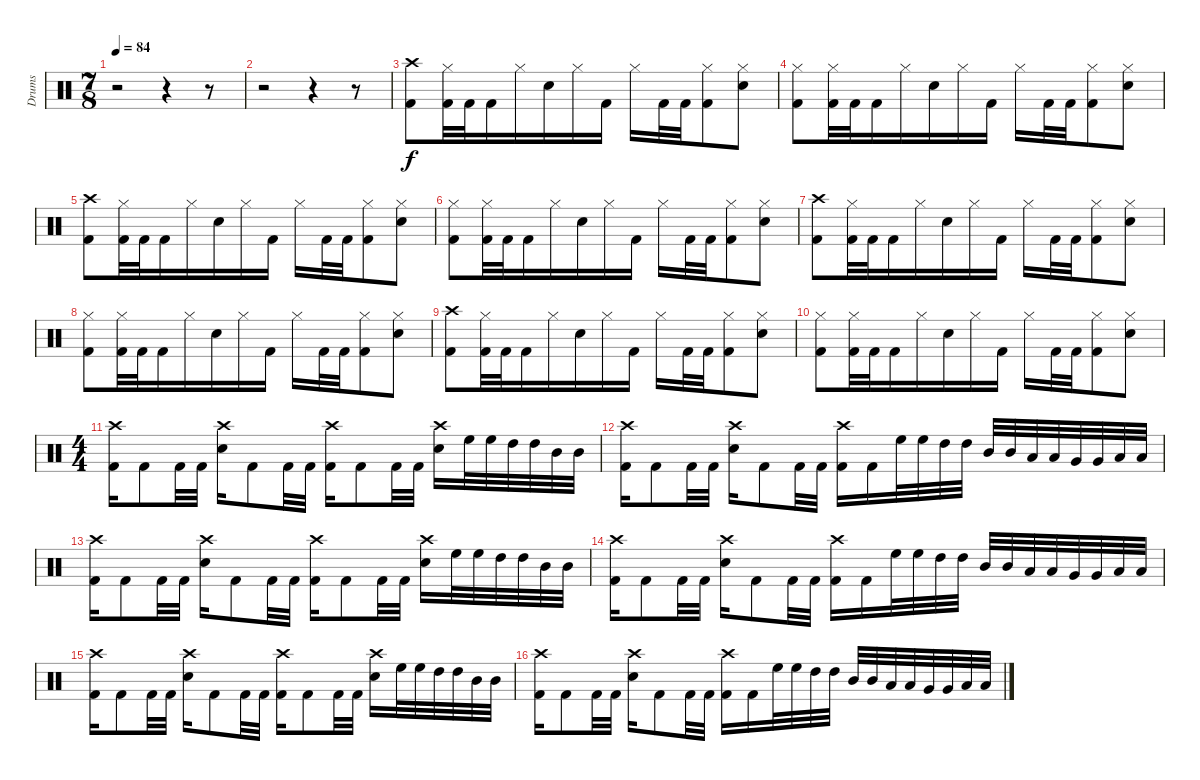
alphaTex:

\track ("Drums" "Drums") {instrument percussion}
\staff {score}
\articulation defaults
\ts (7 8)
\tempo 84
\clef neutral
\ks c
r.2{dy f} r.4 r.8 |
r.2 r.4 r.8 |
("Crash high (hit)" "Kick (hit) 2").8 ("Hi-Hat (closed)" "Kick (hit) 2").32 "Kick (hit) 2".32 "Kick (hit) 2".16 "Hi-Hat (closed)".16 "Electric Snare (hit)".16 "Hi-Hat (closed)".16 "Kick (hit) 2".16 "Hi-Hat (closed)".16 "Kick (hit) 2".32 "Kick (hit) 2".32 ("Hi-Hat (closed)" "Kick (hit) 2").8 ("Hi-Hat (closed)" "Electric Snare (hit)").8 |
("Hi-Hat (closed)" "Kick (hit) 2").8 ("Hi-Hat (closed)" "Kick (hit) 2").32 "Kick (hit) 2".32 "Kick (hit) 2".16 "Hi-Hat (closed)".16 "Electric Snare (hit)".16 "Hi-Hat (closed)".16 "Kick (hit) 2".16 "Hi-Hat (closed)".16 "Kick (hit) 2".32 "Kick (hit) 2".32 ("Hi-Hat (closed)" "Kick (hit) 2").8 ("Hi-Hat (closed)" "Electric Snare (hit)").8 |
("Crash high (hit)" "Kick (hit) 2").8 ("Hi-Hat (closed)" "Kick (hit) 2").32 "Kick (hit) 2".32 "Kick (hit) 2".16 "Hi-Hat (closed)".16 "Electric Snare (hit)".16 "Hi-Hat (closed)".16 "Kick (hit) 2".16 "Hi-Hat (closed)".16 "Kick (hit) 2".32 "Kick (hit) 2".32 ("Hi-Hat (closed)" "Kick (hit) 2").8 ("Hi-Hat (closed)" "Electric Snare (hit)").8 |
("Hi-Hat (closed)" "Kick (hit) 2").8 ("Hi-Hat (closed)" "Kick (hit) 2").32 "Kick (hit) 2".32 "Kick (hit) 2".16 "Hi-Hat (closed)".16 "Electric Snare (hit)".16 "Hi-Hat (closed)".16 "Kick (hit) 2".16 "Hi-Hat (closed)".16 "Kick (hit) 2".32 "Kick (hit) 2".32 ("Hi-Hat (closed)" "Kick (hit) 2").8 ("Hi-Hat (closed)" "Electric Snare (hit)").8 |
("Crash high (hit)" "Kick (hit) 2").8 ("Hi-Hat (closed)" "Kick (hit) 2").32 "Kick (hit) 2".32 "Kick (hit) 2".16 "Hi-Hat (closed)".16 "Electric Snare (hit)".16 "Hi-Hat (closed)".16 "Kick (hit) 2".16 "Hi-Hat (closed)".16 "Kick (hit) 2".32 "Kick (hit) 2".32 ("Hi-Hat (closed)" "Kick (hit) 2").8 ("Hi-Hat (closed)" "Electric Snare (hit)").8 |
("Hi-Hat (closed)" "Kick (hit) 2").8 ("Hi-Hat (closed)" "Kick (hit) 2").32 "Kick (hit) 2".32 "Kick (hit) 2".16 "Hi-Hat (closed)".16 "Electric Snare (hit)".16 "Hi-Hat (closed)".16 "Kick (hit) 2".16 "Hi-Hat (closed)".16 "Kick (hit) 2".32 "Kick (hit) 2".32 ("Hi-Hat (closed)" "Kick (hit) 2").8 ("Hi-Hat (closed)" "Electric Snare (hit)").8 |
("Crash high (hit)" "Kick (hit) 2").8 ("Hi-Hat (closed)" "Kick (hit) 2").32 "Kick (hit) 2".32 "Kick (hit) 2".16 "Hi-Hat (closed)".16 "Electric Snare (hit)".16 "Hi-Hat (closed)".16 "Kick (hit) 2".16 "Hi-Hat (closed)".16 "Kick (hit) 2".32 "Kick (hit) 2".32 ("Hi-Hat (closed)" "Kick (hit) 2").8 ("Hi-Hat (closed)" "Electric Snare (hit)").8 |
("Hi-Hat (closed)" "Kick (hit) 2").8 ("Hi-Hat (closed)" "Kick (hit) 2").32 "Kick (hit) 2".32 "Kick (hit) 2".16 "Hi-Hat (closed)".16 "Electric Snare (hit)".16 "Hi-Hat (closed)".16 "Kick (hit) 2".16 "Hi-Hat (closed)".16 "Kick (hit) 2".32 "Kick (hit) 2".32 ("Hi-Hat (closed)" "Kick (hit) 2").8 ("Hi-Hat (closed)" "Electric Snare (hit)").8 |
\ts (4 4)
("Crash high (hit)" "Kick (hit) 2").16 "Kick (hit) 2".8 "Kick (hit) 2".32 "Kick (hit) 2".32 ("Crash high (hit)" "Electric Snare (hit)").16 "Kick (hit) 2".8 "Kick (hit) 2".32 "Kick (hit) 2".32 ("Crash high (hit)" "Kick (hit) 2").16 "Kick (hit) 2".8 "Kick (hit) 2".32 "Kick (hit) 2".32 ("Crash high (hit)" "Electric Snare (hit)").16 "High Floor Tom (hit)".32 "High Floor Tom (hit)".32 "High Tom (hit)".32 "High Tom (hit)".32 "Mid Tom (hit)".32 "Mid Tom (hit)".32 |
("Crash high (hit)" "Kick (hit) 2").16 "Kick (hit) 2".8 "Kick (hit) 2".32 "Kick (hit) 2".32 ("Crash high (hit)" "Electric Snare (hit)").16 "Kick (hit) 2".8 "Kick (hit) 2".32 "Kick (hit) 2".32 ("Crash high (hit)" "Kick (hit) 2").16 "Kick (hit) 2".16 "High Floor Tom (hit)".32 "High Floor Tom (hit)".32 "High Tom (hit)".32 "High Tom (hit)".32 "Mid Tom (hit)".32 "Mid Tom (hit)".32 "Low Tom (hit)".32 "Low Tom (hit)".32 "Very Low Tom (hit)".32 "Very Low Tom (hit)".32 "Low Floor Tom (hit)".32 "Low Floor Tom (hit)".32 |
("Crash high (hit)" "Kick (hit) 2").16 "Kick (hit) 2".8 "Kick (hit) 2".32 "Kick (hit) 2".32 ("Crash high (hit)" "Electric Snare (hit)").16 "Kick (hit) 2".8 "Kick (hit) 2".32 "Kick (hit) 2".32 ("Crash high (hit)" "Kick (hit) 2").16 "Kick (hit) 2".8 "Kick (hit) 2".32 "Kick (hit) 2".32 ("Crash high (hit)" "Electric Snare (hit)").16 "High Floor Tom (hit)".32 "High Floor Tom (hit)".32 "High Tom (hit)".32 "High Tom (hit)".32 "Mid Tom (hit)".32 "Mid Tom (hit)".32 |
("Crash high (hit)" "Kick (hit) 2").16 "Kick (hit) 2".8 "Kick (hit) 2".32 "Kick (hit) 2".32 ("Crash high (hit)" "Electric Snare (hit)").16 "Kick (hit) 2".8 "Kick (hit) 2".32 "Kick (hit) 2".32 ("Crash high (hit)" "Kick (hit) 2").16 "Kick (hit) 2".16 "High Floor Tom (hit)".32 "High Floor Tom (hit)".32 "High Tom (hit)".32 "High Tom (hit)".32 "Mid Tom (hit)".32 "Mid Tom (hit)".32 "Low Tom (hit)".32 "Low Tom (hit)".32 "Very Low Tom (hit)".32 "Very Low Tom (hit)".32 "Low Floor Tom (hit)".32 "Low Floor Tom (hit)".32 |
("Crash high (hit)" "Kick (hit) 2").16 "Kick (hit) 2".8 "Kick (hit) 2".32 "Kick (hit) 2".32 ("Crash high (hit)" "Electric Snare (hit)").16 "Kick (hit) 2".8 "Kick (hit) 2".32 "Kick (hit) 2".32 ("Crash high (hit)" "Kick (hit) 2").16 "Kick (hit) 2".8 "Kick (hit) 2".32 "Kick (hit) 2".32 ("Crash high (hit)" "Electric Snare (hit)").16 "High Floor Tom (hit)".32 "High Floor Tom (hit)".32 "High Tom (hit)".32 "High Tom (hit)".32 "Mid Tom (hit)".32 "Mid Tom (hit)".32 |
("Crash high (hit)" "Kick (hit) 2").16 "Kick (hit) 2".8 "Kick (hit) 2".32 "Kick (hit) 2".32 ("Crash high (hit)" "Electric Snare (hit)").16 "Kick (hit) 2".8 "Kick (hit) 2".32 "Kick (hit) 2".32 ("Crash high (hit)" "Kick (hit) 2").16 "Kick (hit) 2".16 "High Floor Tom (hit)".32 "High Floor Tom (hit)".32 "High Tom (hit)".32 "High Tom (hit)".32 "Mid Tom (hit)".32 "Mid Tom (hit)".32 "Low Tom (hit)".32 "Low Tom (hit)".32 "Very Low Tom (hit)".32 "Very Low Tom (hit)".32 "Low Floor Tom (hit)".32 "Low Floor Tom (hit)".32
